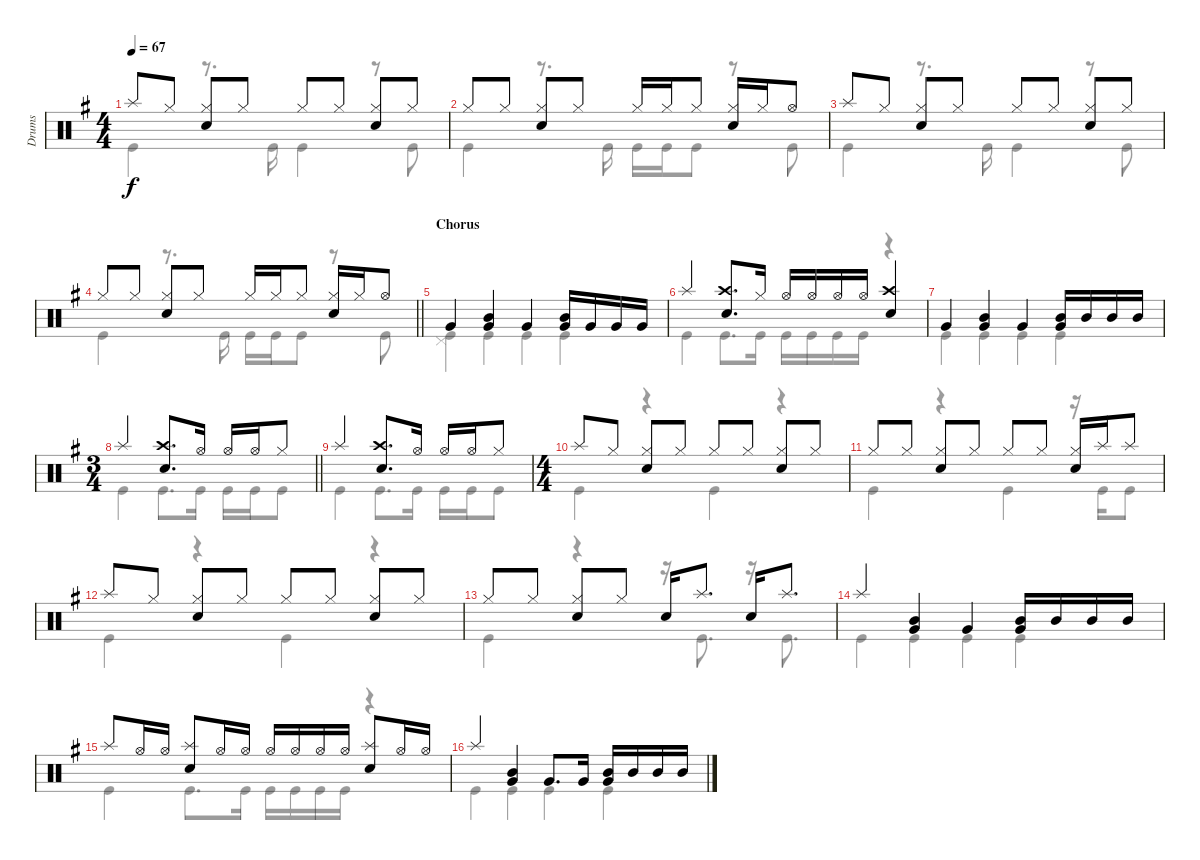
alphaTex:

\track ("Drums" "Drums") {instrument percussion}
\staff {score}
\articulation defaults
\voice
\ts (4 4)
\tempo 67
\clef neutral
\ks eminor "Splash (hit)".8{dy f} "Hi-Hat (closed)".8
("Hi-Hat (closed)" "Snare (hit) 2").8 "Hi-Hat (closed)".8 "Hi-Hat (closed)".8 "Hi-Hat (closed)".8 ("Hi-Hat (closed)" "Snare (hit) 2").8 "Hi-Hat (closed)".8 |
"Hi-Hat (closed)".8 "Hi-Hat (closed)".8 ("Hi-Hat (closed)" "Snare (hit) 2").8 "Hi-Hat (closed)".8 "Hi-Hat (closed)".16 "Hi-Hat (closed)".16 "Hi-Hat (closed)".8 ("Hi-Hat (closed)" "Snare (hit) 2").16 "Hi-Hat (closed)".16 "Hi-Hat (open)".8 |
"Splash (hit)".8 "Hi-Hat (closed)".8 ("Hi-Hat (closed)" "Snare (hit) 2").8 "Hi-Hat (closed)".8 "Hi-Hat (closed)".8 "Hi-Hat (closed)".8 ("Hi-Hat (closed)" "Snare (hit) 2").8 "Hi-Hat (closed)".8 |
\barLineRight lightlight "Hi-Hat (closed)".8 "Hi-Hat (closed)".8
("Hi-Hat (closed)" "Snare (hit) 2").8 "Hi-Hat (closed)".8 "Hi-Hat (closed)".16 "Hi-Hat (closed)".16 "Hi-Hat (closed)".8 ("Hi-Hat (closed)" "Snare (hit) 2").16 "Hi-Hat (closed)".16 "Hi-Hat (open)".8 |
\section ("" "Chorus")
"Very Low Tom (hit)".4 ("Very Low Tom (hit)" "Mid Tom (hit)").4 "Very Low Tom (hit)".4 ("Very Low Tom (hit)" "Mid Tom (hit)").16 "Very Low Tom (hit)".16 "Very Low Tom (hit)".16 "Very Low Tom (hit)".16 |
"Splash (hit)".4 ("Crash high (hit)" "Snare (hit) 2").8{d} "Hi-Hat (closed)".16 "Hi-Hat (open)".16 "Hi-Hat (open)".16 "Hi-Hat (open)".16 "Hi-Hat (open)".16 ("Crash high (hit)" "Snare (hit) 2").4 |
"Very Low Tom (hit)".4 ("Very Low Tom (hit)" "Mid Tom (hit)").4 "Very Low Tom (hit)".4 ("Very Low Tom (hit)" "Mid Tom (hit)").16 "Mid Tom (hit)".16 "Mid Tom (hit)".16 "Mid Tom (hit)".16 |
\ts (3 4)
\barLineRight lightlight "Splash (hit)".4
("Crash high (hit)" "Snare (hit) 2").8{d} "Hi-Hat (open)".16 "Hi-Hat (open)".16 "Hi-Hat (open)".16 "Hi-Hat (closed)".8 |
"Splash (hit)".4 ("Crash high (hit)" "Snare (hit) 2").8{d} "Hi-Hat (open)".16 "Hi-Hat (open)".16 "Hi-Hat (open)".16 "Hi-Hat (closed)".8 |
\ts (4 4)
"Splash (hit)".8 "Hi-Hat (closed)".8 ("Hi-Hat (closed)" "Snare (hit) 2").8 "Hi-Hat (closed)".8 "Hi-Hat (closed)".8 "Hi-Hat (closed)".8 ("Hi-Hat (closed)" "Snare (hit) 2").8 "Hi-Hat (closed)".8 |
"Hi-Hat (closed)".8 "Hi-Hat (closed)".8 ("Hi-Hat (closed)" "Snare (hit) 2").8 "Hi-Hat (closed)".8 "Hi-Hat (closed)".8 "Hi-Hat (closed)".8 ("Hi-Hat (closed)" "Snare (hit) 2").16 "Splash (hit)".16 "Splash (hit)".8 |
"Splash (hit)".8 "Hi-Hat (closed)".8 ("Hi-Hat (closed)" "Snare (hit) 2").8 "Hi-Hat (closed)".8 "Hi-Hat (closed)".8 "Hi-Hat (closed)".8 ("Hi-Hat (closed)" "Snare (hit) 2").8 "Hi-Hat (closed)".8 |
"Hi-Hat (closed)".8 "Hi-Hat (closed)".8 ("Hi-Hat (closed)" "Snare (hit) 2").8 "Hi-Hat (closed)".8 "Snare (hit) 2".16 "Splash (hit)".8{d} "Snare (hit) 2".16 "Splash (hit)".8{d} |
"Splash (hit)".4 ("Mid Tom (hit)" "Very Low Tom (hit)").4 "Very Low Tom (hit)".4 ("Very Low Tom (hit)" "Mid Tom (hit)").16 "Mid Tom (hit)".16 "Mid Tom (hit)".16 "Mid Tom (hit)".16 |
"Splash (hit)".8 "Hi-Hat (open)".16 "Hi-Hat (open)".16 ("Splash (hit)" "Snare (hit) 2").8 "Hi-Hat (open)".16 "Hi-Hat (open)".16 "Hi-Hat (open)".16 "Hi-Hat (open)".16 "Hi-Hat (open)".16 "Hi-Hat (open)".16 ("Splash (hit)" "Snare (hit) 2").8 "Hi-Hat (open)".16 "Hi-Hat (open)".16 |
"Splash (hit)".4 ("Mid Tom (hit)" "Very Low Tom (hit)").4 "Very Low Tom (hit)".8{d} "Very Low Tom (hit)".16 ("Very Low Tom (hit)" "Mid Tom (hit)").16 "Mid Tom (hit)".16 "Mid Tom (hit)".16 "Mid Tom (hit)".16
\voice
\clef neutral
\ottava regular
\simile none
\ks eminor "Kick (hit)".4{dy f}
r.8{d} "Kick (hit)".16 "Kick (hit)".4 r.8 "Kick (hit)".8 |
"Kick (hit)".4 r.8{d} "Kick (hit)".16 "Kick (hit)".16 "Kick (hit)".16 "Kick (hit)".8 r.8 "Kick (hit)".8 |
"Kick (hit)".4 r.8{d} "Kick (hit)".16 "Kick (hit)".4 r.8 "Kick (hit)".8 |
\barLineRight lightlight "Kick (hit)".4
r.8{d} "Kick (hit)".16 "Kick (hit)".16 "Kick (hit)".16 "Kick (hit)".8 r.8 "Kick (hit)".8 |
("Kick (hit)" "Pedal Hi-Hat (hit)").4 "Kick (hit)".4 "Kick (hit)".4 "Kick (hit)".4 |
"Kick (hit)".4 "Kick (hit)".8{d} "Kick (hit)".16 "Kick (hit)".16 "Kick (hit)".16 "Kick (hit)".16 "Kick (hit)".16 r.4 |
"Kick (hit)".4 "Kick (hit)".4 "Kick (hit)".4 "Kick (hit)".4 |
\barLineRight lightlight "Kick (hit)".4 "Kick (hit)".8{d} "Kick (hit)".16 "Kick (hit)".16 "Kick (hit)".16 "Kick (hit)".8
|
"Kick (hit)".4 "Kick (hit)".8{d} "Kick (hit)".16 "Kick (hit)".16 "Kick (hit)".16 "Kick (hit)".8 |
"Kick (hit)".4 r.4 "Kick (hit)".4 r.4 |
"Kick (hit)".4 r.4 "Kick (hit)".4 r.16 "Kick (hit)".16 "Kick (hit)".8 |
"Kick (hit)".4 r.4 "Kick (hit)".4 r.4 |
"Kick (hit)".4 r.4 r.16 "Kick (hit)".8{d} r.16 "Kick (hit)".8{d} |
"Kick (hit)".4 "Kick (hit)".4 "Kick (hit)".4 "Kick (hit)".4 |
"Kick (hit)".4 "Kick (hit)".8{d} "Kick (hit)".16 "Kick (hit)".16 "Kick (hit)".16 "Kick (hit)".16 "Kick (hit)".16 r.4 |
"Kick (hit)".4 "Kick (hit)".4 "Kick (hit)".4 "Kick (hit)".4
